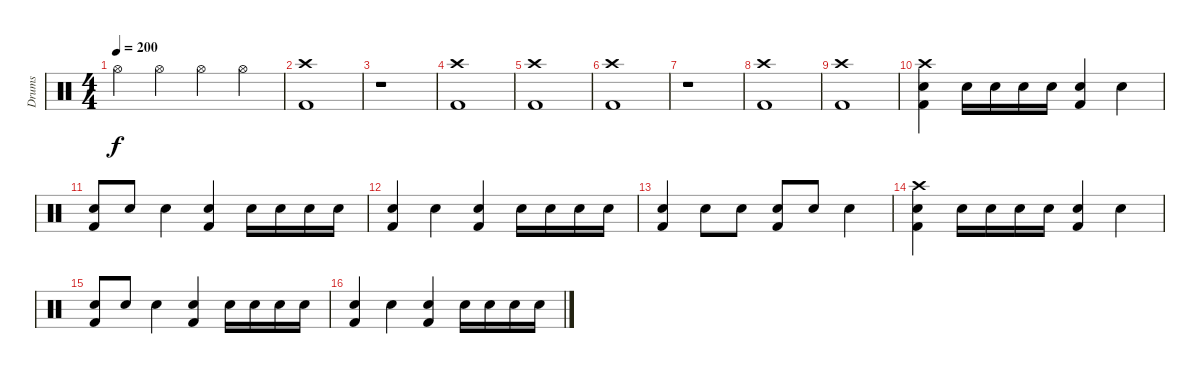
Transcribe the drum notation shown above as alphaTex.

\track ("Drums" "Drums") {instrument percussion}
\staff {score}
\articulation defaults
\ts (4 4)
\tempo 200
\clef neutral
\ks c "Hi-Hat (open)".4{dy f} "Hi-Hat (open)".4 "Hi-Hat (open)".4 "Hi-Hat (open)".4
|
("Crash high (hit)" "Kick (hit) 2").1 |
r.1 |
("Crash high (hit)" "Kick (hit) 2").1 |
("Crash high (hit)" "Kick (hit) 2").1 |
("Crash high (hit)" "Kick (hit) 2").1 |
r.1 |
("Crash high (hit)" "Kick (hit) 2").1 |
("Crash high (hit)" "Kick (hit) 2").1 |
("Crash high (hit)" "Snare (hit) 2" "Kick (hit) 2").4 "Snare (hit) 2".16 "Snare (hit) 2".16 "Snare (hit) 2".16 "Snare (hit) 2".16 ("Snare (hit) 2" "Kick (hit) 2").4 "Snare (hit) 2".4 |
("Snare (hit) 2" "Kick (hit) 2").8 "Snare (hit) 2".8 "Snare (hit) 2".4 ("Snare (hit) 2" "Kick (hit) 2").4 "Snare (hit) 2".16 "Snare (hit) 2".16 "Snare (hit) 2".16 "Snare (hit) 2".16 |
("Snare (hit) 2" "Kick (hit) 2").4 "Snare (hit) 2".4 ("Snare (hit) 2" "Kick (hit) 2").4 "Snare (hit) 2".16 "Snare (hit) 2".16 "Snare (hit) 2".16 "Snare (hit) 2".16 |
("Snare (hit) 2" "Kick (hit) 2").4 "Snare (hit) 2".8 "Snare (hit) 2".8 ("Snare (hit) 2" "Kick (hit) 2").8 "Snare (hit) 2".8 "Snare (hit) 2".4 |
("Crash high (hit)" "Snare (hit) 2" "Kick (hit) 2").4 "Snare (hit) 2".16 "Snare (hit) 2".16 "Snare (hit) 2".16 "Snare (hit) 2".16 ("Snare (hit) 2" "Kick (hit) 2").4 "Snare (hit) 2".4 |
("Snare (hit) 2" "Kick (hit) 2").8 "Snare (hit) 2".8 "Snare (hit) 2".4 ("Snare (hit) 2" "Kick (hit) 2").4 "Snare (hit) 2".16 "Snare (hit) 2".16 "Snare (hit) 2".16 "Snare (hit) 2".16 |
("Snare (hit) 2" "Kick (hit) 2").4 "Snare (hit) 2".4 ("Snare (hit) 2" "Kick (hit) 2").4 "Snare (hit) 2".16 "Snare (hit) 2".16 "Snare (hit) 2".16 "Snare (hit) 2".16
